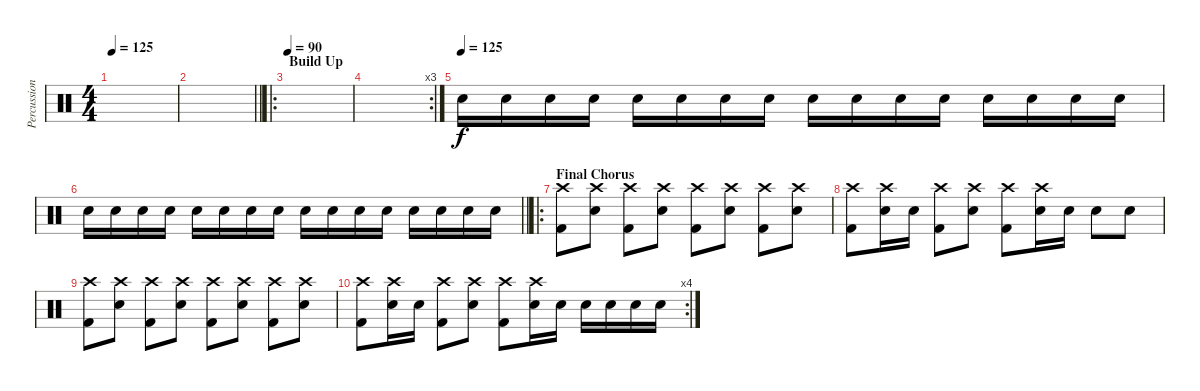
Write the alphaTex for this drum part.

\track ("Percussion" "Percussion") {instrument percussion}
\staff {score}
\articulation defaults
\ts (4 4)
\tempo 125
\clef neutral
\ks c
|
\barLineRight lightlight
|
\ro
\section ("" "Build Up")
\tempo 90
|
\rc 3
|
\tempo (125)
"Electric Snare (hit)".16 "Electric Snare (hit)".16 "Electric Snare (hit)".16 "Electric Snare (hit)".16 "Electric Snare (hit)".16 "Electric Snare (hit)".16 "Electric Snare (hit)".16 "Electric Snare (hit)".16 "Electric Snare (hit)".16 "Electric Snare (hit)".16 "Electric Snare (hit)".16 "Electric Snare (hit)".16 "Electric Snare (hit)".16 "Electric Snare (hit)".16 "Electric Snare (hit)".16 "Electric Snare (hit)".16 |
\barLineRight lightlight "Electric Snare (hit)".16 "Electric Snare (hit)".16 "Electric Snare (hit)".16 "Electric Snare (hit)".16 "Electric Snare (hit)".16 "Electric Snare (hit)".16 "Electric Snare (hit)".16 "Electric Snare (hit)".16 "Electric Snare (hit)".16 "Electric Snare (hit)".16 "Electric Snare (hit)".16 "Electric Snare (hit)".16 "Electric Snare (hit)".16 "Electric Snare (hit)".16 "Electric Snare (hit)".16 "Electric Snare (hit)".16
|
\ro
\section ("" "Final Chorus")
("Crash high (hit)" "Kick (hit) 2").8 ("Crash high (hit)" "Electric Snare (hit)").8 ("Crash high (hit)" "Kick (hit) 2").8 ("Crash high (hit)" "Electric Snare (hit)").8 ("Crash high (hit)" "Kick (hit) 2").8 ("Crash high (hit)" "Electric Snare (hit)").8 ("Crash high (hit)" "Kick (hit) 2").8 ("Crash high (hit)" "Electric Snare (hit)").8 |
("Crash high (hit)" "Kick (hit) 2").8 ("Crash high (hit)" "Electric Snare (hit)").16 "Electric Snare (hit)".16 ("Crash high (hit)" "Kick (hit) 2").8 ("Crash high (hit)" "Electric Snare (hit)").8 ("Crash high (hit)" "Kick (hit) 2").8 ("Crash high (hit)" "Electric Snare (hit)").16 "Electric Snare (hit)".16 "Electric Snare (hit)".8 "Electric Snare (hit)".8 |
("Crash high (hit)" "Kick (hit) 2").8 ("Crash high (hit)" "Electric Snare (hit)").8 ("Crash high (hit)" "Kick (hit) 2").8 ("Crash high (hit)" "Electric Snare (hit)").8 ("Crash high (hit)" "Kick (hit) 2").8 ("Crash high (hit)" "Electric Snare (hit)").8 ("Crash high (hit)" "Kick (hit) 2").8 ("Crash high (hit)" "Electric Snare (hit)").8 |
\rc 4
("Crash high (hit)" "Kick (hit) 2").8 ("Crash high (hit)" "Electric Snare (hit)").16 "Electric Snare (hit)".16 ("Crash high (hit)" "Kick (hit) 2").8 ("Crash high (hit)" "Electric Snare (hit)").8 ("Crash high (hit)" "Kick (hit) 2").8 ("Crash high (hit)" "Electric Snare (hit)").16 "Electric Snare (hit)".16 "Electric Snare (hit)".16 "Electric Snare (hit)".16 "Electric Snare (hit)".16 "Electric Snare (hit)".16
